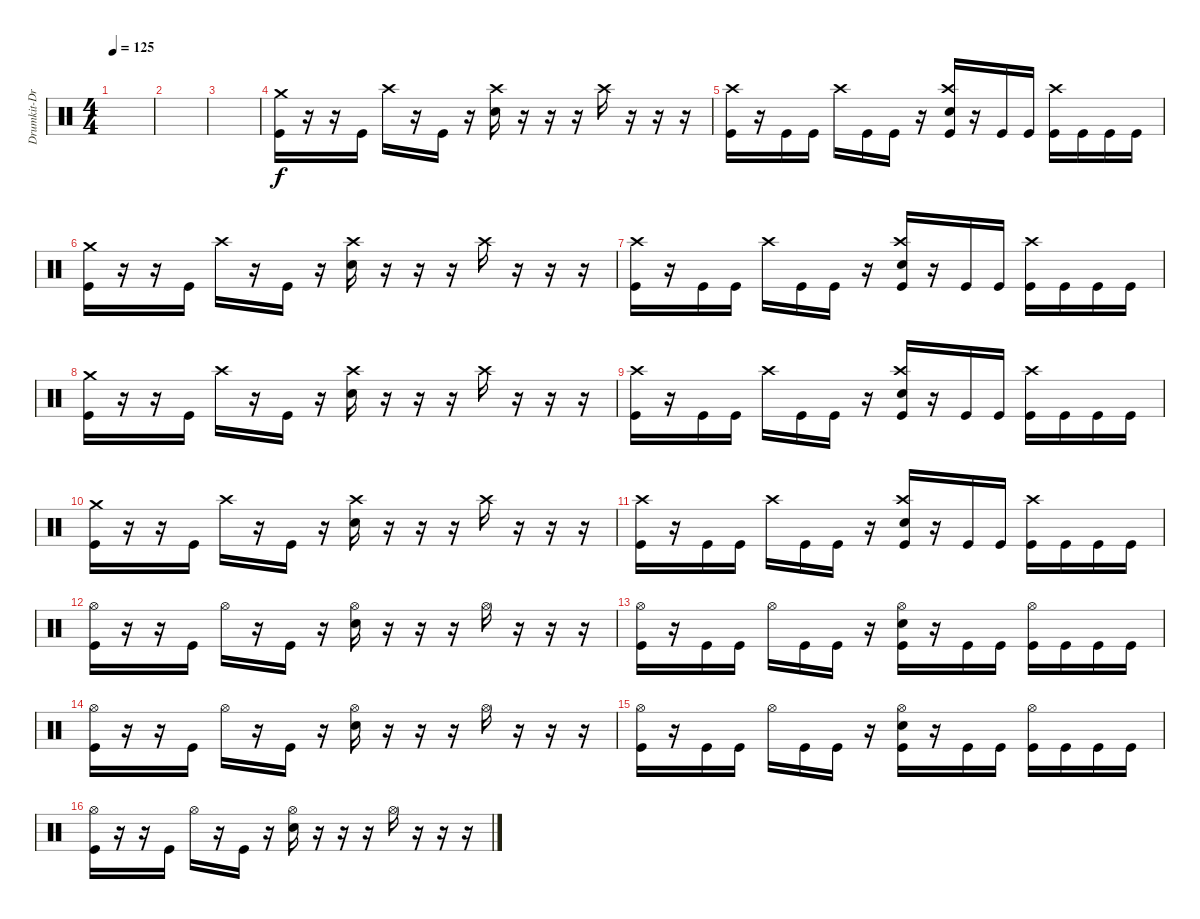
\track ("Drumkit-Drums" "Drumkit-Dr") {instrument percussion}
\staff {score}
\articulation defaults
\ts (4 4)
\tempo 125
\clef neutral
\ks c
|
|
|
("Crash medium (hit)" "Kick (hit)").16 r.16 r.16 "Kick (hit)".16 "Crash high (hit)".16 r.16 "Kick (hit)".16 r.16 ("Crash high (hit)" "Snare (hit) 2").16 r.16 r.16 r.16 "Crash high (hit)".16 r.16 r.16 r.16 |
("Kick (hit)" "Crash high (hit)").16 r.16 "Kick (hit)".16 "Kick (hit)".16 "Crash high (hit)".16 "Kick (hit)".16 "Kick (hit)".16 r.16 ("Crash high (hit)" "Kick (hit)" "Snare (hit) 2").16 r.16 "Kick (hit)".16 "Kick (hit)".16 ("Crash high (hit)" "Kick (hit)").16 "Kick (hit)".16 "Kick (hit)".16 "Kick (hit)".16 |
("Crash medium (hit)" "Kick (hit)").16 r.16 r.16 "Kick (hit)".16 "Crash high (hit)".16 r.16 "Kick (hit)".16 r.16 ("Crash high (hit)" "Snare (hit) 2").16 r.16 r.16 r.16 "Crash high (hit)".16 r.16 r.16 r.16 |
("Kick (hit)" "Crash high (hit)").16 r.16 "Kick (hit)".16 "Kick (hit)".16 "Crash high (hit)".16 "Kick (hit)".16 "Kick (hit)".16 r.16 ("Crash high (hit)" "Kick (hit)" "Snare (hit) 2").16 r.16 "Kick (hit)".16 "Kick (hit)".16 ("Crash high (hit)" "Kick (hit)").16 "Kick (hit)".16 "Kick (hit)".16 "Kick (hit)".16 |
("Crash medium (hit)" "Kick (hit)").16 r.16 r.16 "Kick (hit)".16 "Crash high (hit)".16 r.16 "Kick (hit)".16 r.16 ("Crash high (hit)" "Snare (hit) 2").16 r.16 r.16 r.16 "Crash high (hit)".16 r.16 r.16 r.16 |
("Kick (hit)" "Crash high (hit)").16 r.16 "Kick (hit)".16 "Kick (hit)".16 "Crash high (hit)".16 "Kick (hit)".16 "Kick (hit)".16 r.16 ("Crash high (hit)" "Kick (hit)" "Snare (hit) 2").16 r.16 "Kick (hit)".16 "Kick (hit)".16 ("Crash high (hit)" "Kick (hit)").16 "Kick (hit)".16 "Kick (hit)".16 "Kick (hit)".16 |
("Crash medium (hit)" "Kick (hit)").16 r.16 r.16 "Kick (hit)".16 "Crash high (hit)".16 r.16 "Kick (hit)".16 r.16 ("Crash high (hit)" "Snare (hit) 2").16 r.16 r.16 r.16 "Crash high (hit)".16 r.16 r.16 r.16 |
("Kick (hit)" "Crash high (hit)").16 r.16 "Kick (hit)".16 "Kick (hit)".16 "Crash high (hit)".16 "Kick (hit)".16 "Kick (hit)".16 r.16 ("Crash high (hit)" "Kick (hit)" "Snare (hit) 2").16 r.16 "Kick (hit)".16 "Kick (hit)".16 ("Crash high (hit)" "Kick (hit)").16 "Kick (hit)".16 "Kick (hit)".16 "Kick (hit)".16 |
("Kick (hit)" "Hi-Hat (open)").16 r.16 r.16 "Kick (hit)".16 "Hi-Hat (open)".16 r.16 "Kick (hit)".16 r.16 ("Hi-Hat (open)" "Snare (hit) 2").16 r.16 r.16 r.16 "Hi-Hat (open)".16 r.16 r.16 r.16 |
("Kick (hit)" "Hi-Hat (open)").16 r.16 "Kick (hit)".16 "Kick (hit)".16 "Hi-Hat (open)".16 "Kick (hit)".16 "Kick (hit)".16 r.16 ("Kick (hit)" "Hi-Hat (open)" "Snare (hit) 2").16 r.16 "Kick (hit)".16 "Kick (hit)".16 ("Kick (hit)" "Hi-Hat (open)").16 "Kick (hit)".16 "Kick (hit)".16 "Kick (hit)".16 |
("Kick (hit)" "Hi-Hat (open)").16 r.16 r.16 "Kick (hit)".16 "Hi-Hat (open)".16 r.16 "Kick (hit)".16 r.16 ("Hi-Hat (open)" "Snare (hit) 2").16 r.16 r.16 r.16 "Hi-Hat (open)".16 r.16 r.16 r.16 |
("Kick (hit)" "Hi-Hat (open)").16 r.16 "Kick (hit)".16 "Kick (hit)".16 "Hi-Hat (open)".16 "Kick (hit)".16 "Kick (hit)".16 r.16 ("Kick (hit)" "Hi-Hat (open)" "Snare (hit) 2").16 r.16 "Kick (hit)".16 "Kick (hit)".16 ("Kick (hit)" "Hi-Hat (open)").16 "Kick (hit)".16 "Kick (hit)".16 "Kick (hit)".16 |
("Kick (hit)" "Hi-Hat (open)").16 r.16 r.16 "Kick (hit)".16 "Hi-Hat (open)".16 r.16 "Kick (hit)".16 r.16 ("Hi-Hat (open)" "Snare (hit) 2").16 r.16 r.16 r.16 "Hi-Hat (open)".16 r.16 r.16 r.16
